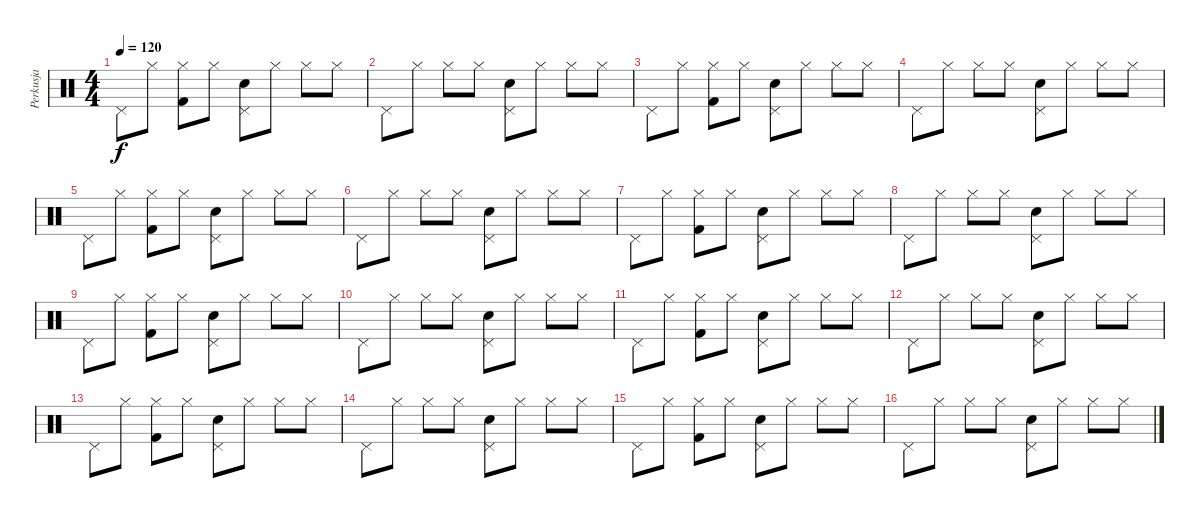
\track ("Perkusja" "Perkusja") {instrument percussion}
\staff {score}
\articulation defaults
\ts (4 4)
\tempo 120
\clef neutral
\ks c "Pedal Hi-Hat (hit)".8{dy f} "Hi-Hat (closed)".8
("Hi-Hat (closed)" "Kick (hit) 2").8 "Hi-Hat (closed)".8 ("Pedal Hi-Hat (hit)" "Snare (hit) 2").8 "Hi-Hat (closed)".8 "Hi-Hat (closed)".8 "Hi-Hat (closed)".8 |
"Pedal Hi-Hat (hit)".8 "Hi-Hat (closed)".8 "Hi-Hat (closed)".8 "Hi-Hat (closed)".8 ("Pedal Hi-Hat (hit)" "Snare (hit) 2").8 "Hi-Hat (closed)".8 "Hi-Hat (closed)".8 "Hi-Hat (closed)".8 |
"Pedal Hi-Hat (hit)".8 "Hi-Hat (closed)".8 ("Hi-Hat (closed)" "Kick (hit) 2").8 "Hi-Hat (closed)".8 ("Pedal Hi-Hat (hit)" "Snare (hit) 2").8 "Hi-Hat (closed)".8 "Hi-Hat (closed)".8 "Hi-Hat (closed)".8 |
"Pedal Hi-Hat (hit)".8 "Hi-Hat (closed)".8 "Hi-Hat (closed)".8 "Hi-Hat (closed)".8 ("Pedal Hi-Hat (hit)" "Snare (hit) 2").8 "Hi-Hat (closed)".8 "Hi-Hat (closed)".8 "Hi-Hat (closed)".8 |
"Pedal Hi-Hat (hit)".8 "Hi-Hat (closed)".8 ("Hi-Hat (closed)" "Kick (hit) 2").8 "Hi-Hat (closed)".8 ("Pedal Hi-Hat (hit)" "Snare (hit) 2").8 "Hi-Hat (closed)".8 "Hi-Hat (closed)".8 "Hi-Hat (closed)".8 |
"Pedal Hi-Hat (hit)".8 "Hi-Hat (closed)".8 "Hi-Hat (closed)".8 "Hi-Hat (closed)".8 ("Pedal Hi-Hat (hit)" "Snare (hit) 2").8 "Hi-Hat (closed)".8 "Hi-Hat (closed)".8 "Hi-Hat (closed)".8 |
"Pedal Hi-Hat (hit)".8 "Hi-Hat (closed)".8 ("Hi-Hat (closed)" "Kick (hit) 2").8 "Hi-Hat (closed)".8 ("Pedal Hi-Hat (hit)" "Snare (hit) 2").8 "Hi-Hat (closed)".8 "Hi-Hat (closed)".8 "Hi-Hat (closed)".8 |
"Pedal Hi-Hat (hit)".8 "Hi-Hat (closed)".8 "Hi-Hat (closed)".8 "Hi-Hat (closed)".8 ("Pedal Hi-Hat (hit)" "Snare (hit) 2").8 "Hi-Hat (closed)".8 "Hi-Hat (closed)".8 "Hi-Hat (closed)".8 |
"Pedal Hi-Hat (hit)".8 "Hi-Hat (closed)".8 ("Hi-Hat (closed)" "Kick (hit) 2").8 "Hi-Hat (closed)".8 ("Pedal Hi-Hat (hit)" "Snare (hit) 2").8 "Hi-Hat (closed)".8 "Hi-Hat (closed)".8 "Hi-Hat (closed)".8 |
"Pedal Hi-Hat (hit)".8 "Hi-Hat (closed)".8 "Hi-Hat (closed)".8 "Hi-Hat (closed)".8 ("Pedal Hi-Hat (hit)" "Snare (hit) 2").8 "Hi-Hat (closed)".8 "Hi-Hat (closed)".8 "Hi-Hat (closed)".8 |
"Pedal Hi-Hat (hit)".8 "Hi-Hat (closed)".8 ("Hi-Hat (closed)" "Kick (hit) 2").8 "Hi-Hat (closed)".8 ("Pedal Hi-Hat (hit)" "Snare (hit) 2").8 "Hi-Hat (closed)".8 "Hi-Hat (closed)".8 "Hi-Hat (closed)".8 |
"Pedal Hi-Hat (hit)".8 "Hi-Hat (closed)".8 "Hi-Hat (closed)".8 "Hi-Hat (closed)".8 ("Pedal Hi-Hat (hit)" "Snare (hit) 2").8 "Hi-Hat (closed)".8 "Hi-Hat (closed)".8 "Hi-Hat (closed)".8 |
"Pedal Hi-Hat (hit)".8 "Hi-Hat (closed)".8 ("Hi-Hat (closed)" "Kick (hit) 2").8 "Hi-Hat (closed)".8 ("Pedal Hi-Hat (hit)" "Snare (hit) 2").8 "Hi-Hat (closed)".8 "Hi-Hat (closed)".8 "Hi-Hat (closed)".8 |
"Pedal Hi-Hat (hit)".8 "Hi-Hat (closed)".8 "Hi-Hat (closed)".8 "Hi-Hat (closed)".8 ("Pedal Hi-Hat (hit)" "Snare (hit) 2").8 "Hi-Hat (closed)".8 "Hi-Hat (closed)".8 "Hi-Hat (closed)".8 |
"Pedal Hi-Hat (hit)".8 "Hi-Hat (closed)".8 ("Hi-Hat (closed)" "Kick (hit) 2").8 "Hi-Hat (closed)".8 ("Pedal Hi-Hat (hit)" "Snare (hit) 2").8 "Hi-Hat (closed)".8 "Hi-Hat (closed)".8 "Hi-Hat (closed)".8 |
"Pedal Hi-Hat (hit)".8 "Hi-Hat (closed)".8 "Hi-Hat (closed)".8 "Hi-Hat (closed)".8 ("Pedal Hi-Hat (hit)" "Snare (hit) 2").8 "Hi-Hat (closed)".8 "Hi-Hat (closed)".8 "Hi-Hat (closed)".8
